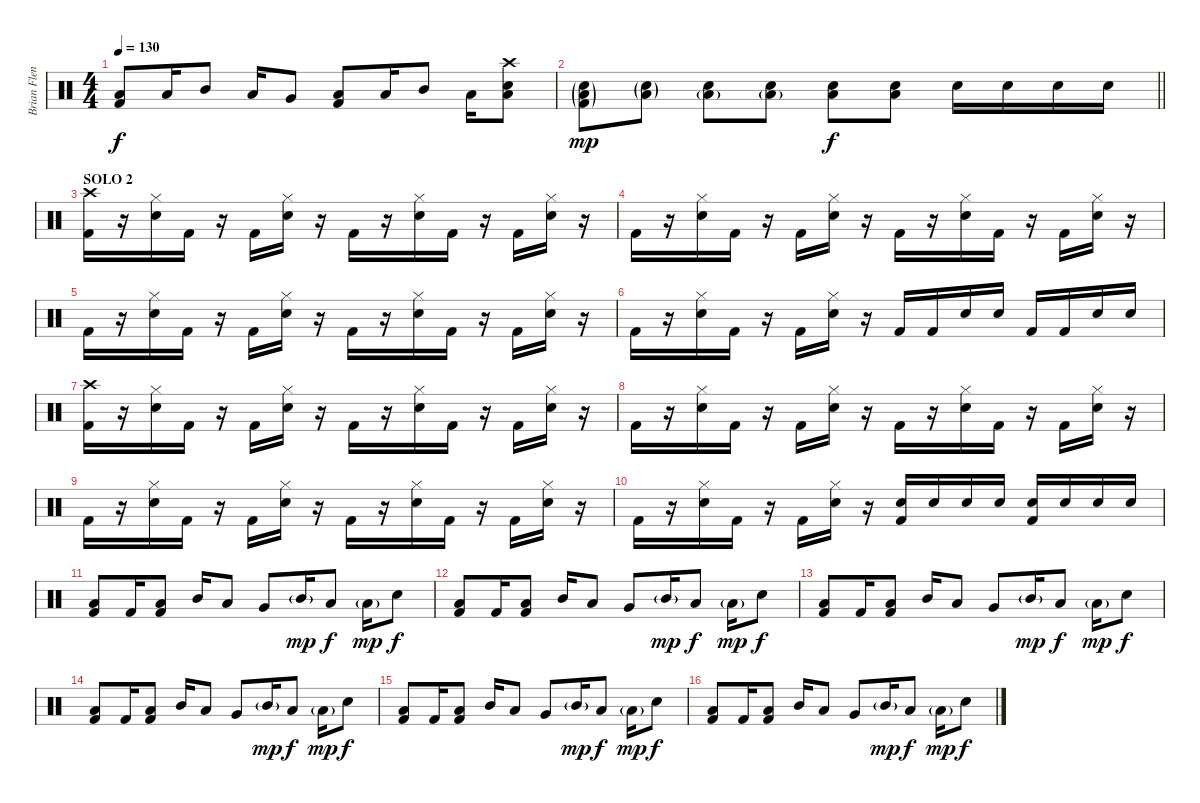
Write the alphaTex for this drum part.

\track ("Brian Flenniken" "Brian Flen") {instrument percussion}
\staff {score}
\articulation defaults
\ts (4 4)
\tempo 130
\clef neutral
\ks c
("Low Floor Tom (hit)" "Kick (hit) 2").8{dy f} "Low Tom (hit)".16 "Mid Tom (hit)".8 "Low Tom (hit)".16 "Very Low Tom (hit)".8 ("Low Floor Tom (hit)" "Kick (hit) 2").8 "Low Tom (hit)".16 "Mid Tom (hit)".8 "Low Tom (hit)".16 ("Crash high (hit)" "Low Floor Tom (hit)" "Snare (hit) 2").8 |
\barLineRight lightlight
("Low Floor Tom (hit)"{g} "Snare (hit) 2"{g} "Kick (hit) 2"{g}).8{dy mp} ("Low Floor Tom (hit)"{g} "Snare (hit) 2"{g}).8 ("Low Floor Tom (hit)"{g} "Snare (hit) 2").8 ("Low Floor Tom (hit)"{g} "Snare (hit) 2").8 ("Low Floor Tom (hit)" "Snare (hit) 2").8{dy f} ("Low Floor Tom (hit)" "Snare (hit) 2").8 "Snare (hit) 2".16 "Snare (hit) 2".16 "Snare (hit) 2".16 "Snare (hit) 2".16 |
\section ("" "SOLO 2")
("Crash high (hit)" "Kick (hit) 2").16 r.16 ("Hi-Hat (closed)" "Snare (hit) 2").16 "Kick (hit) 2".16 r.16 "Kick (hit) 2".16 ("Hi-Hat (closed)" "Snare (hit) 2").16 r.16 "Kick (hit) 2".16 r.16 ("Hi-Hat (closed)" "Snare (hit) 2").16 "Kick (hit) 2".16 r.16 "Kick (hit) 2".16 ("Hi-Hat (closed)" "Snare (hit) 2").16 r.16 |
"Kick (hit) 2".16 r.16 ("Hi-Hat (closed)" "Snare (hit) 2").16 "Kick (hit) 2".16 r.16 "Kick (hit) 2".16 ("Hi-Hat (closed)" "Snare (hit) 2").16 r.16 "Kick (hit) 2".16 r.16 ("Hi-Hat (closed)" "Snare (hit) 2").16 "Kick (hit) 2".16 r.16 "Kick (hit) 2".16 ("Hi-Hat (closed)" "Snare (hit) 2").16 r.16 |
"Kick (hit) 2".16 r.16 ("Hi-Hat (closed)" "Snare (hit) 2").16 "Kick (hit) 2".16 r.16 "Kick (hit) 2".16 ("Hi-Hat (closed)" "Snare (hit) 2").16 r.16 "Kick (hit) 2".16 r.16 ("Hi-Hat (closed)" "Snare (hit) 2").16 "Kick (hit) 2".16 r.16 "Kick (hit) 2".16 ("Hi-Hat (closed)" "Snare (hit) 2").16 r.16 |
"Kick (hit) 2".16 r.16 ("Hi-Hat (closed)" "Snare (hit) 2").16 "Kick (hit) 2".16 r.16 "Kick (hit) 2".16 ("Hi-Hat (closed)" "Snare (hit) 2").16 r.16 "Kick (hit) 2".16 "Kick (hit) 2".16 "Snare (hit) 2".16 "Snare (hit) 2".16 "Kick (hit) 2".16 "Kick (hit) 2".16 "Snare (hit) 2".16 "Snare (hit) 2".16 |
("Crash high (hit)" "Kick (hit) 2").16 r.16 ("Hi-Hat (closed)" "Snare (hit) 2").16 "Kick (hit) 2".16 r.16 "Kick (hit) 2".16 ("Hi-Hat (closed)" "Snare (hit) 2").16 r.16 "Kick (hit) 2".16 r.16 ("Hi-Hat (closed)" "Snare (hit) 2").16 "Kick (hit) 2".16 r.16 "Kick (hit) 2".16 ("Hi-Hat (closed)" "Snare (hit) 2").16 r.16 |
"Kick (hit) 2".16 r.16 ("Hi-Hat (closed)" "Snare (hit) 2").16 "Kick (hit) 2".16 r.16 "Kick (hit) 2".16 ("Hi-Hat (closed)" "Snare (hit) 2").16 r.16 "Kick (hit) 2".16 r.16 ("Hi-Hat (closed)" "Snare (hit) 2").16 "Kick (hit) 2".16 r.16 "Kick (hit) 2".16 ("Hi-Hat (closed)" "Snare (hit) 2").16 r.16 |
"Kick (hit) 2".16 r.16 ("Hi-Hat (closed)" "Snare (hit) 2").16 "Kick (hit) 2".16 r.16 "Kick (hit) 2".16 ("Hi-Hat (closed)" "Snare (hit) 2").16 r.16 "Kick (hit) 2".16 r.16 ("Hi-Hat (closed)" "Snare (hit) 2").16 "Kick (hit) 2".16 r.16 "Kick (hit) 2".16 ("Hi-Hat (closed)" "Snare (hit) 2").16 r.16 |
"Kick (hit) 2".16 r.16 ("Hi-Hat (closed)" "Snare (hit) 2").16 "Kick (hit) 2".16 r.16 "Kick (hit) 2".16 ("Hi-Hat (closed)" "Snare (hit) 2").16 r.16 ("Snare (hit) 2" "Kick (hit) 2").16 "Snare (hit) 2".16 "Snare (hit) 2".16 "Snare (hit) 2".16 ("Snare (hit) 2" "Kick (hit) 2").16 "Snare (hit) 2".16 "Snare (hit) 2".16 "Snare (hit) 2".16 |
("Low Floor Tom (hit)" "Kick (hit) 2").8 "Kick (hit) 2".16 ("Low Floor Tom (hit)" "Kick (hit) 2").8 "Mid Tom (hit)".16 "Low Tom (hit)".8 "Very Low Tom (hit)".8 "Mid Tom (hit)"{g}.16{dy mp} "Low Floor Tom (hit)".8{dy f} "Low Tom (hit)"{g}.16{dy mp} "Snare (hit) 2".8{dy f} |
("Low Floor Tom (hit)" "Kick (hit) 2").8 "Kick (hit) 2".16 ("Low Floor Tom (hit)" "Kick (hit) 2").8 "Mid Tom (hit)".16 "Low Tom (hit)".8 "Very Low Tom (hit)".8 "Mid Tom (hit)"{g}.16{dy mp} "Low Floor Tom (hit)".8{dy f} "Low Tom (hit)"{g}.16{dy mp} "Snare (hit) 2".8{dy f} |
("Low Floor Tom (hit)" "Kick (hit) 2").8 "Kick (hit) 2".16 ("Low Floor Tom (hit)" "Kick (hit) 2").8 "Mid Tom (hit)".16 "Low Tom (hit)".8 "Very Low Tom (hit)".8 "Mid Tom (hit)"{g}.16{dy mp} "Low Floor Tom (hit)".8{dy f} "Low Tom (hit)"{g}.16{dy mp} "Snare (hit) 2".8{dy f} |
("Low Floor Tom (hit)" "Kick (hit) 2").8 "Kick (hit) 2".16 ("Low Floor Tom (hit)" "Kick (hit) 2").8 "Mid Tom (hit)".16 "Low Tom (hit)".8 "Very Low Tom (hit)".8 "Mid Tom (hit)"{g}.16{dy mp} "Low Floor Tom (hit)".8{dy f} "Low Tom (hit)"{g}.16{dy mp} "Snare (hit) 2".8{dy f} |
("Low Floor Tom (hit)" "Kick (hit) 2").8 "Kick (hit) 2".16 ("Low Floor Tom (hit)" "Kick (hit) 2").8 "Mid Tom (hit)".16 "Low Tom (hit)".8 "Very Low Tom (hit)".8 "Mid Tom (hit)"{g}.16{dy mp} "Low Floor Tom (hit)".8{dy f} "Low Tom (hit)"{g}.16{dy mp} "Snare (hit) 2".8{dy f} |
("Low Floor Tom (hit)" "Kick (hit) 2").8 "Kick (hit) 2".16 ("Low Floor Tom (hit)" "Kick (hit) 2").8 "Mid Tom (hit)".16 "Low Tom (hit)".8 "Very Low Tom (hit)".8 "Mid Tom (hit)"{g}.16{dy mp} "Low Floor Tom (hit)".8{dy f} "Low Tom (hit)"{g}.16{dy mp} "Snare (hit) 2".8{dy f}
